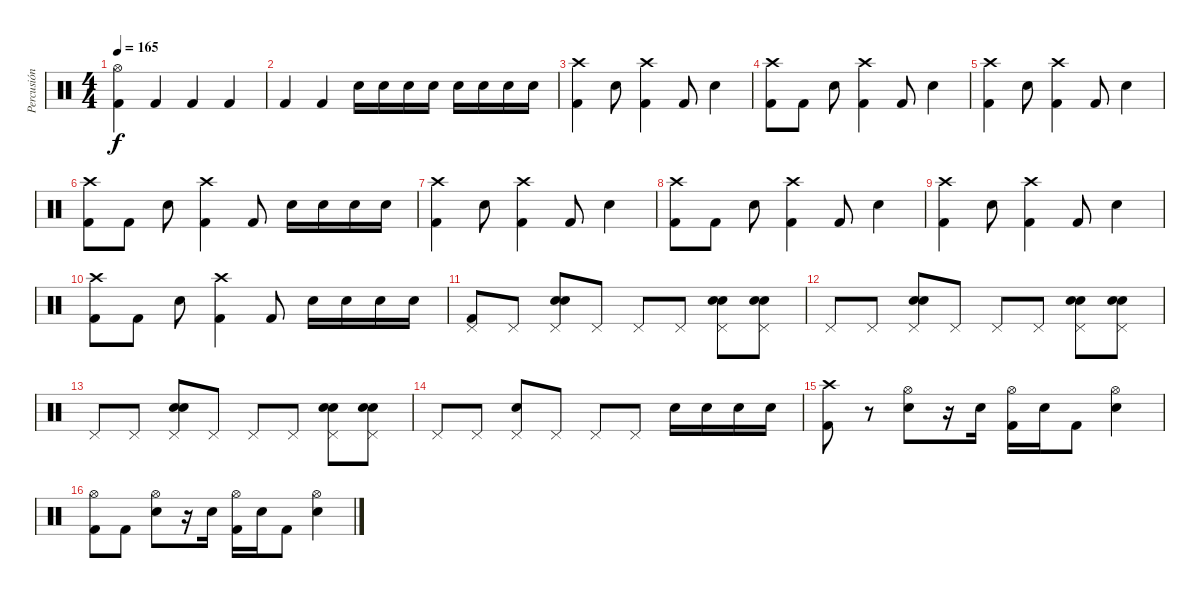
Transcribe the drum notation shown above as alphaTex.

\track ("Percusión" "Percusión") {instrument percussion}
\staff {score}
\articulation defaults
\ts (4 4)
\tempo 165
\clef neutral
\ks c
("Hi-Hat (open)" "Kick (hit) 2").4{dy f} "Kick (hit) 2".4 "Kick (hit) 2".4 "Kick (hit) 2".4 |
"Kick (hit) 2".4 "Kick (hit) 2".4 "Electric Snare (hit)".16 "Electric Snare (hit)".16 "Electric Snare (hit)".16 "Electric Snare (hit)".16 "Electric Snare (hit)".16 "Electric Snare (hit)".16 "Electric Snare (hit)".16 "Electric Snare (hit)".16 |
("Crash high (hit)" "Kick (hit) 2").4 "Electric Snare (hit)".8 ("Crash high (hit)" "Kick (hit) 2").4 "Kick (hit) 2".8 "Electric Snare (hit)".4 |
("Crash high (hit)" "Kick (hit) 2").8 "Kick (hit) 2".8 "Electric Snare (hit)".8 ("Crash high (hit)" "Kick (hit) 2").4 "Kick (hit) 2".8 "Electric Snare (hit)".4 |
("Crash high (hit)" "Kick (hit) 2").4 "Electric Snare (hit)".8 ("Crash high (hit)" "Kick (hit) 2").4 "Kick (hit) 2".8 "Electric Snare (hit)".4 |
("Crash high (hit)" "Kick (hit) 2").8 "Kick (hit) 2".8 "Electric Snare (hit)".8 ("Crash high (hit)" "Kick (hit) 2").4 "Kick (hit) 2".8 "Electric Snare (hit)".16 "Electric Snare (hit)".16 "Electric Snare (hit)".16 "Electric Snare (hit)".16 |
("Crash high (hit)" "Kick (hit) 2").4 "Electric Snare (hit)".8 ("Crash high (hit)" "Kick (hit) 2").4 "Kick (hit) 2".8 "Electric Snare (hit)".4 |
("Crash high (hit)" "Kick (hit) 2").8 "Kick (hit) 2".8 "Electric Snare (hit)".8 ("Crash high (hit)" "Kick (hit) 2").4 "Kick (hit) 2".8 "Electric Snare (hit)".4 |
("Crash high (hit)" "Kick (hit) 2").4 "Electric Snare (hit)".8 ("Crash high (hit)" "Kick (hit) 2").4 "Kick (hit) 2".8 "Electric Snare (hit)".4 |
("Crash high (hit)" "Kick (hit) 2").8 "Kick (hit) 2".8 "Electric Snare (hit)".8 ("Crash high (hit)" "Kick (hit) 2").4 "Kick (hit) 2".8 "Electric Snare (hit)".16 "Electric Snare (hit)".16 "Electric Snare (hit)".16 "Electric Snare (hit)".16 |
("Pedal Hi-Hat (hit)" "Kick (hit) 2").8 "Pedal Hi-Hat (hit)".8 ("Hand Clap (hit)" "Pedal Hi-Hat (hit)" "Electric Snare (hit)").8 "Pedal Hi-Hat (hit)".8 "Pedal Hi-Hat (hit)".8 "Pedal Hi-Hat (hit)".8 ("Hand Clap (hit)" "Pedal Hi-Hat (hit)" "Electric Snare (hit)").8 ("Hand Clap (hit)" "Pedal Hi-Hat (hit)" "Electric Snare (hit)").8 |
"Pedal Hi-Hat (hit)".8 "Pedal Hi-Hat (hit)".8 ("Hand Clap (hit)" "Pedal Hi-Hat (hit)" "Electric Snare (hit)").8 "Pedal Hi-Hat (hit)".8 "Pedal Hi-Hat (hit)".8 "Pedal Hi-Hat (hit)".8 ("Hand Clap (hit)" "Pedal Hi-Hat (hit)" "Electric Snare (hit)").8 ("Hand Clap (hit)" "Pedal Hi-Hat (hit)" "Electric Snare (hit)").8 |
"Pedal Hi-Hat (hit)".8 "Pedal Hi-Hat (hit)".8 ("Hand Clap (hit)" "Pedal Hi-Hat (hit)" "Electric Snare (hit)").8 "Pedal Hi-Hat (hit)".8 "Pedal Hi-Hat (hit)".8 "Pedal Hi-Hat (hit)".8 ("Hand Clap (hit)" "Pedal Hi-Hat (hit)" "Electric Snare (hit)").8 ("Hand Clap (hit)" "Pedal Hi-Hat (hit)" "Electric Snare (hit)").8 |
"Pedal Hi-Hat (hit)".8 "Pedal Hi-Hat (hit)".8 ("Pedal Hi-Hat (hit)" "Electric Snare (hit)").8 "Pedal Hi-Hat (hit)".8 "Pedal Hi-Hat (hit)".8 "Pedal Hi-Hat (hit)".8 "Electric Snare (hit)".16 "Electric Snare (hit)".16 "Electric Snare (hit)".16 "Electric Snare (hit)".16 |
("Crash high (hit)" "Kick (hit) 2").8 r.8 ("Hi-Hat (open)" "Electric Snare (hit)").8 r.16 "Electric Snare (hit)".16 ("Hi-Hat (open)" "Kick (hit) 2").16 "Electric Snare (hit)".16 "Kick (hit) 2".8 ("Hi-Hat (open)" "Electric Snare (hit)").4 |
("Hi-Hat (open)" "Kick (hit) 2").8 "Kick (hit) 2".8 ("Hi-Hat (open)" "Electric Snare (hit)").8 r.16 "Electric Snare (hit)".16 ("Hi-Hat (open)" "Kick (hit) 2").16 "Electric Snare (hit)".16 "Kick (hit) 2".8 ("Hi-Hat (open)" "Electric Snare (hit)").4
